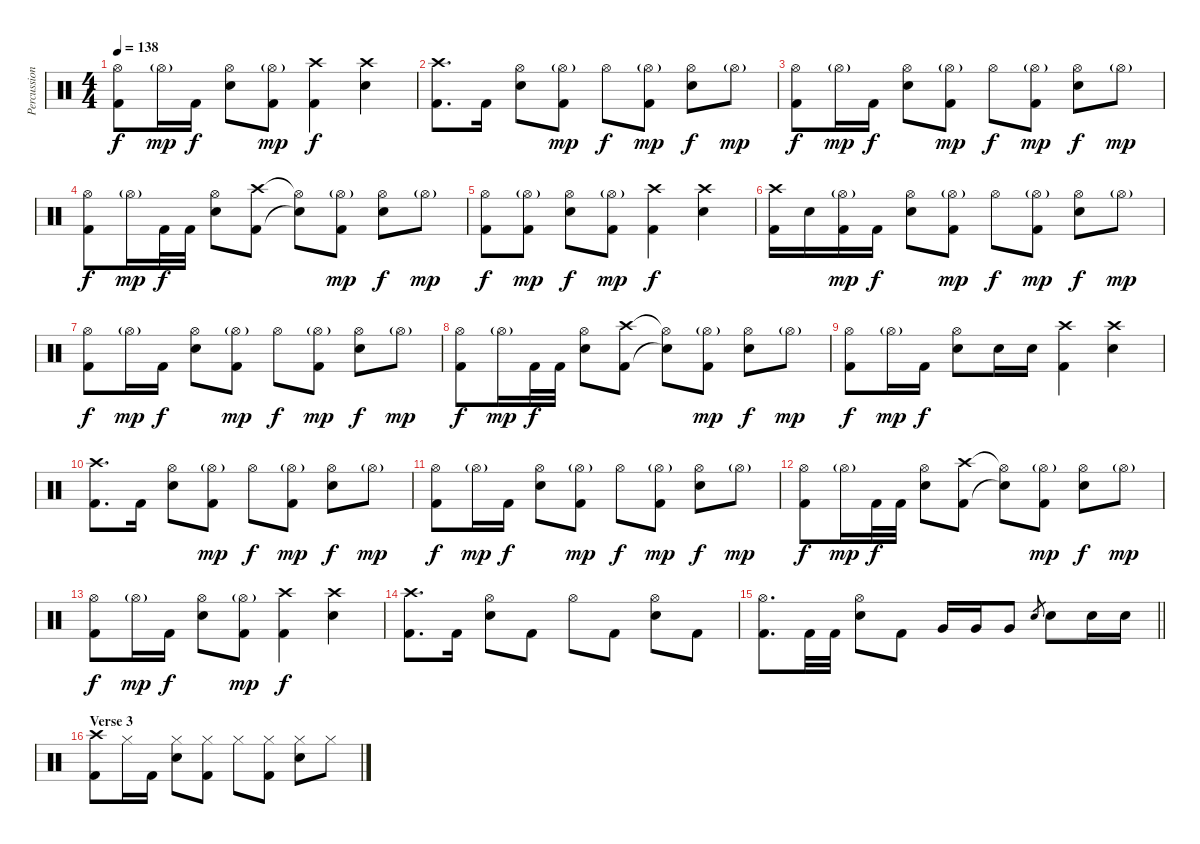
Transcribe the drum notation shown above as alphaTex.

\track ("Percussion" "Percussion") {instrument percussion}
\staff {score}
\articulation defaults
\ts (4 4)
\tempo 138
\clef neutral
\ks c
("Hi-Hat (open)" "Kick (hit) 2").8{dy f} "Hi-Hat (open)"{g}.16{dy mp} "Kick (hit) 2".16{dy f} ("Hi-Hat (open)" "Snare (hit) 2").8 ("Hi-Hat (open)"{g} "Kick (hit) 2").8{dy mp} ("Crash high (hit)" "Kick (hit) 2").4{dy f} ("Crash high (hit)" "Snare (hit) 2").4 |
("Crash high (hit)" "Kick (hit) 2").8{d} "Kick (hit) 2".16 ("Hi-Hat (open)" "Snare (hit) 2").8 ("Hi-Hat (open)"{g} "Kick (hit) 2").8{dy mp} "Hi-Hat (open)".8{dy f} ("Hi-Hat (open)"{g} "Kick (hit) 2").8{dy mp} ("Hi-Hat (open)" "Snare (hit) 2").8{dy f} "Hi-Hat (open)"{g}.8{dy mp} |
("Hi-Hat (open)" "Kick (hit) 2").8{dy f} "Hi-Hat (open)"{g}.16{dy mp} "Kick (hit) 2".16{dy f} ("Hi-Hat (open)" "Snare (hit) 2").8 ("Hi-Hat (open)"{g} "Kick (hit) 2").8{dy mp} "Hi-Hat (open)".8{dy f} ("Hi-Hat (open)"{g} "Kick (hit) 2").8{dy mp} ("Hi-Hat (open)" "Snare (hit) 2").8{dy f} "Hi-Hat (open)"{g}.8{dy mp} |
("Hi-Hat (open)" "Kick (hit) 2").8{dy f} "Hi-Hat (open)"{g}.16{dy mp} "Kick (hit) 2".32{dy f} "Kick (hit) 2".32 ("Hi-Hat (open)" "Snare (hit) 2").8 ("Crash high (hit)" "Kick (hit) 2").8 ("Hi-Hat (open)"{t} "Snare (hit)"{t}).8 ("Hi-Hat (open)"{g} "Kick (hit) 2").8{dy mp} ("Hi-Hat (open)" "Snare (hit) 2").8{dy f} "Hi-Hat (open)"{g}.8{dy mp} |
("Hi-Hat (open)" "Kick (hit) 2").8{dy f} ("Hi-Hat (open)"{g} "Kick (hit) 2").8{dy mp} ("Hi-Hat (open)" "Snare (hit) 2").8{dy f} ("Hi-Hat (open)"{g} "Kick (hit) 2").8{dy mp} ("Crash high (hit)" "Kick (hit) 2").4{dy f} ("Crash high (hit)" "Snare (hit) 2").4 |
("Crash high (hit)" "Kick (hit) 2").16 "Snare (hit) 2".16 ("Hi-Hat (open)"{g} "Kick (hit) 2").16{dy mp} "Kick (hit) 2".16{dy f} ("Hi-Hat (open)" "Snare (hit) 2").8 ("Hi-Hat (open)"{g} "Kick (hit) 2").8{dy mp} "Hi-Hat (open)".8{dy f} ("Hi-Hat (open)"{g} "Kick (hit) 2").8{dy mp} ("Hi-Hat (open)" "Snare (hit) 2").8{dy f} "Hi-Hat (open)"{g}.8{dy mp} |
("Hi-Hat (open)" "Kick (hit) 2").8{dy f} "Hi-Hat (open)"{g}.16{dy mp} "Kick (hit) 2".16{dy f} ("Hi-Hat (open)" "Snare (hit) 2").8 ("Hi-Hat (open)"{g} "Kick (hit) 2").8{dy mp} "Hi-Hat (open)".8{dy f} ("Hi-Hat (open)"{g} "Kick (hit) 2").8{dy mp} ("Hi-Hat (open)" "Snare (hit) 2").8{dy f} "Hi-Hat (open)"{g}.8{dy mp} |
("Hi-Hat (open)" "Kick (hit) 2").8{dy f} "Hi-Hat (open)"{g}.16{dy mp} "Kick (hit) 2".32{dy f} "Kick (hit) 2".32 ("Hi-Hat (open)" "Snare (hit) 2").8 ("Crash high (hit)" "Kick (hit) 2").8 ("Hi-Hat (open)"{t} "Snare (hit)"{t}).8 ("Hi-Hat (open)"{g} "Kick (hit) 2").8{dy mp} ("Hi-Hat (open)" "Snare (hit) 2").8{dy f} "Hi-Hat (open)"{g}.8{dy mp} |
("Hi-Hat (open)" "Kick (hit) 2").8{dy f} "Hi-Hat (open)"{g}.16{dy mp} "Kick (hit) 2".16{dy f} ("Hi-Hat (open)" "Snare (hit) 2").8 "Snare (hit) 2".16 "Snare (hit) 2".16 ("Crash high (hit)" "Kick (hit) 2").4 ("Crash high (hit)" "Snare (hit) 2").4 |
("Crash high (hit)" "Kick (hit) 2").8{d} "Kick (hit) 2".16 ("Hi-Hat (open)" "Snare (hit) 2").8 ("Hi-Hat (open)"{g} "Kick (hit) 2").8{dy mp} "Hi-Hat (open)".8{dy f} ("Hi-Hat (open)"{g} "Kick (hit) 2").8{dy mp} ("Hi-Hat (open)" "Snare (hit) 2").8{dy f} "Hi-Hat (open)"{g}.8{dy mp} |
("Hi-Hat (open)" "Kick (hit) 2").8{dy f} "Hi-Hat (open)"{g}.16{dy mp} "Kick (hit) 2".16{dy f} ("Hi-Hat (open)" "Snare (hit) 2").8 ("Hi-Hat (open)"{g} "Kick (hit) 2").8{dy mp} "Hi-Hat (open)".8{dy f} ("Hi-Hat (open)"{g} "Kick (hit) 2").8{dy mp} ("Hi-Hat (open)" "Snare (hit) 2").8{dy f} "Hi-Hat (open)"{g}.8{dy mp} |
("Hi-Hat (open)" "Kick (hit) 2").8{dy f} "Hi-Hat (open)"{g}.16{dy mp} "Kick (hit) 2".32{dy f} "Kick (hit) 2".32 ("Hi-Hat (open)" "Snare (hit) 2").8 ("Crash high (hit)" "Kick (hit) 2").8 ("Hi-Hat (open)"{t} "Snare (hit)"{t}).8 ("Hi-Hat (open)"{g} "Kick (hit) 2").8{dy mp} ("Hi-Hat (open)" "Snare (hit) 2").8{dy f} "Hi-Hat (open)"{g}.8{dy mp} |
("Hi-Hat (open)" "Kick (hit) 2").8{dy f} "Hi-Hat (open)"{g}.16{dy mp} "Kick (hit) 2".16{dy f} ("Hi-Hat (open)" "Snare (hit) 2").8 ("Hi-Hat (open)"{g} "Kick (hit) 2").8{dy mp} ("Crash high (hit)" "Kick (hit) 2").4{dy f} ("Crash high (hit)" "Snare (hit) 2").4 |
("Crash high (hit)" "Kick (hit) 2").8{d} "Kick (hit) 2".16 ("Hi-Hat (open)" "Snare (hit) 2").8 "Kick (hit) 2".8 "Hi-Hat (open)".8 "Kick (hit) 2".8 ("Hi-Hat (open)" "Snare (hit) 2").8 "Kick (hit) 2".8 |
\barLineRight lightlight
("Hi-Hat (open)" "Kick (hit) 2").8{d} "Kick (hit) 2".32 "Kick (hit) 2".32 ("Hi-Hat (open)" "Snare (hit) 2").8 "Kick (hit) 2".8 "Very Low Tom (hit)".16 "Very Low Tom (hit)".16 "Very Low Tom (hit)".8 "Snare (hit) 2".8{gr} "Snare (hit) 2".8 "Snare (hit) 2".16 "Snare (hit) 2".16 |
\section ("" "Verse 3")
("Crash high (hit)" "Kick (hit) 2").8 "Hi-Hat (closed)".16 "Kick (hit) 2".16 ("Hi-Hat (closed)" "Snare (hit) 2").8 ("Hi-Hat (closed)" "Kick (hit) 2").8 "Hi-Hat (closed)".8 ("Hi-Hat (closed)" "Kick (hit) 2").8 ("Hi-Hat (closed)" "Snare (hit) 2").8 "Hi-Hat (closed)".8
